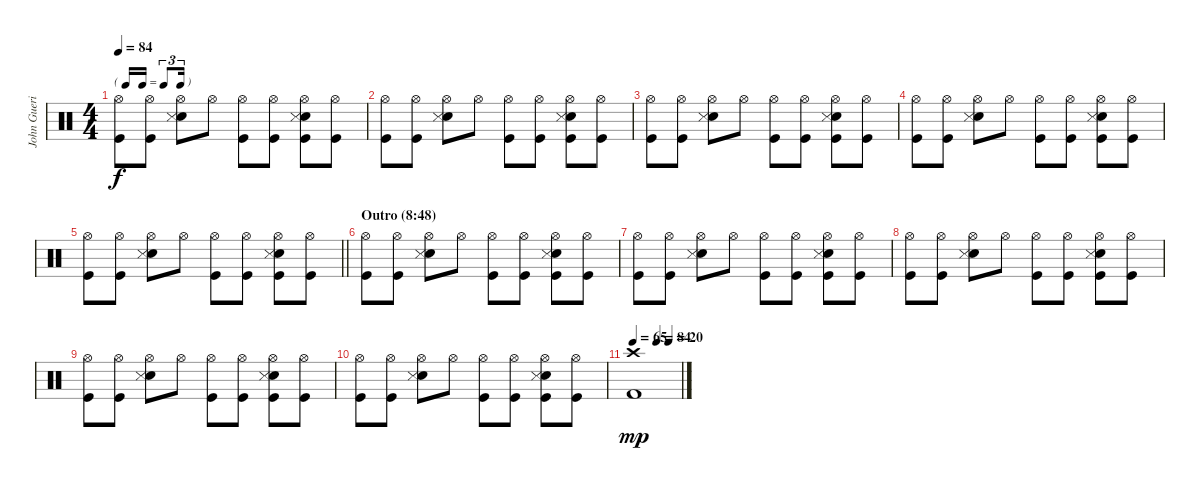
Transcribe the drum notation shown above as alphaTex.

\track ("John Guerin - Drums" "John Gueri") {instrument percussion}
\staff {score}
\articulation defaults
\ts (4 4)
\tf triplet16th
\tempo 84
\clef neutral
\ks c
("Hi-Hat (open)" "Kick (hit)").8{dy f} ("Hi-Hat (open)" "Kick (hit)").8 ("Hi-Hat (open)" "Electric Snare (hit)" "Snare (side stick) 3").8 "Hi-Hat (open)".8 ("Hi-Hat (open)" "Kick (hit)").8 ("Hi-Hat (open)" "Kick (hit)").8 ("Hi-Hat (open)" "Electric Snare (hit)" "Snare (side stick) 3" "Kick (hit)").8 ("Hi-Hat (open)" "Kick (hit)").8 |
("Hi-Hat (open)" "Kick (hit)").8 ("Hi-Hat (open)" "Kick (hit)").8 ("Hi-Hat (open)" "Electric Snare (hit)" "Snare (side stick) 3").8 "Hi-Hat (open)".8 ("Hi-Hat (open)" "Kick (hit)").8 ("Hi-Hat (open)" "Kick (hit)").8 ("Hi-Hat (open)" "Electric Snare (hit)" "Snare (side stick) 3" "Kick (hit)").8 ("Hi-Hat (open)" "Kick (hit)").8 |
("Hi-Hat (open)" "Kick (hit)").8 ("Hi-Hat (open)" "Kick (hit)").8 ("Hi-Hat (open)" "Electric Snare (hit)" "Snare (side stick) 3").8 "Hi-Hat (open)".8 ("Hi-Hat (open)" "Kick (hit)").8 ("Hi-Hat (open)" "Kick (hit)").8 ("Hi-Hat (open)" "Electric Snare (hit)" "Snare (side stick) 3" "Kick (hit)").8 ("Hi-Hat (open)" "Kick (hit)").8 |
("Hi-Hat (open)" "Kick (hit)").8 ("Hi-Hat (open)" "Kick (hit)").8 ("Hi-Hat (open)" "Electric Snare (hit)" "Snare (side stick) 3").8 "Hi-Hat (open)".8 ("Hi-Hat (open)" "Kick (hit)").8 ("Hi-Hat (open)" "Kick (hit)").8 ("Hi-Hat (open)" "Electric Snare (hit)" "Snare (side stick) 3" "Kick (hit)").8 ("Hi-Hat (open)" "Kick (hit)").8 |
\barLineRight lightlight
("Hi-Hat (open)" "Kick (hit)").8 ("Hi-Hat (open)" "Kick (hit)").8 ("Hi-Hat (open)" "Electric Snare (hit)" "Snare (side stick) 3").8 "Hi-Hat (open)".8 ("Hi-Hat (open)" "Kick (hit)").8 ("Hi-Hat (open)" "Kick (hit)").8 ("Hi-Hat (open)" "Electric Snare (hit)" "Snare (side stick) 3" "Kick (hit)").8 ("Hi-Hat (open)" "Kick (hit)").8 |
\section ("" "Outro (8:48)")
("Hi-Hat (open)" "Kick (hit)").8 ("Hi-Hat (open)" "Kick (hit)").8 ("Hi-Hat (open)" "Electric Snare (hit)" "Snare (side stick) 3").8 "Hi-Hat (open)".8 ("Hi-Hat (open)" "Kick (hit)").8 ("Hi-Hat (open)" "Kick (hit)").8 ("Hi-Hat (open)" "Electric Snare (hit)" "Snare (side stick) 3" "Kick (hit)").8 ("Hi-Hat (open)" "Kick (hit)").8 |
("Hi-Hat (open)" "Kick (hit)").8 ("Hi-Hat (open)" "Kick (hit)").8 ("Hi-Hat (open)" "Electric Snare (hit)" "Snare (side stick) 3").8 "Hi-Hat (open)".8 ("Hi-Hat (open)" "Kick (hit)").8 ("Hi-Hat (open)" "Kick (hit)").8 ("Hi-Hat (open)" "Electric Snare (hit)" "Snare (side stick) 3" "Kick (hit)").8 ("Hi-Hat (open)" "Kick (hit)").8 |
("Hi-Hat (open)" "Kick (hit)").8 ("Hi-Hat (open)" "Kick (hit)").8 ("Hi-Hat (open)" "Electric Snare (hit)" "Snare (side stick) 3").8 "Hi-Hat (open)".8 ("Hi-Hat (open)" "Kick (hit)").8 ("Hi-Hat (open)" "Kick (hit)").8 ("Hi-Hat (open)" "Electric Snare (hit)" "Snare (side stick) 3" "Kick (hit)").8 ("Hi-Hat (open)" "Kick (hit)").8 |
("Hi-Hat (open)" "Kick (hit)").8 ("Hi-Hat (open)" "Kick (hit)").8 ("Hi-Hat (open)" "Electric Snare (hit)" "Snare (side stick) 3").8 "Hi-Hat (open)".8 ("Hi-Hat (open)" "Kick (hit)").8 ("Hi-Hat (open)" "Kick (hit)").8 ("Hi-Hat (open)" "Electric Snare (hit)" "Snare (side stick) 3" "Kick (hit)").8 ("Hi-Hat (open)" "Kick (hit)").8 |
("Hi-Hat (open)" "Kick (hit)").8 ("Hi-Hat (open)" "Kick (hit)").8 ("Hi-Hat (open)" "Electric Snare (hit)" "Snare (side stick) 3").8 "Hi-Hat (open)".8 ("Hi-Hat (open)" "Kick (hit)").8 ("Hi-Hat (open)" "Kick (hit)").8 ("Hi-Hat (open)" "Electric Snare (hit)" "Snare (side stick) 3" "Kick (hit)").8 ("Hi-Hat (open)" "Kick (hit)").8 |
\tempo 65
\tempo (84 0.5)
\tempo (20 0.75)
("Kick (hit) 2" "Crash high (hit)").1{dy mp}
